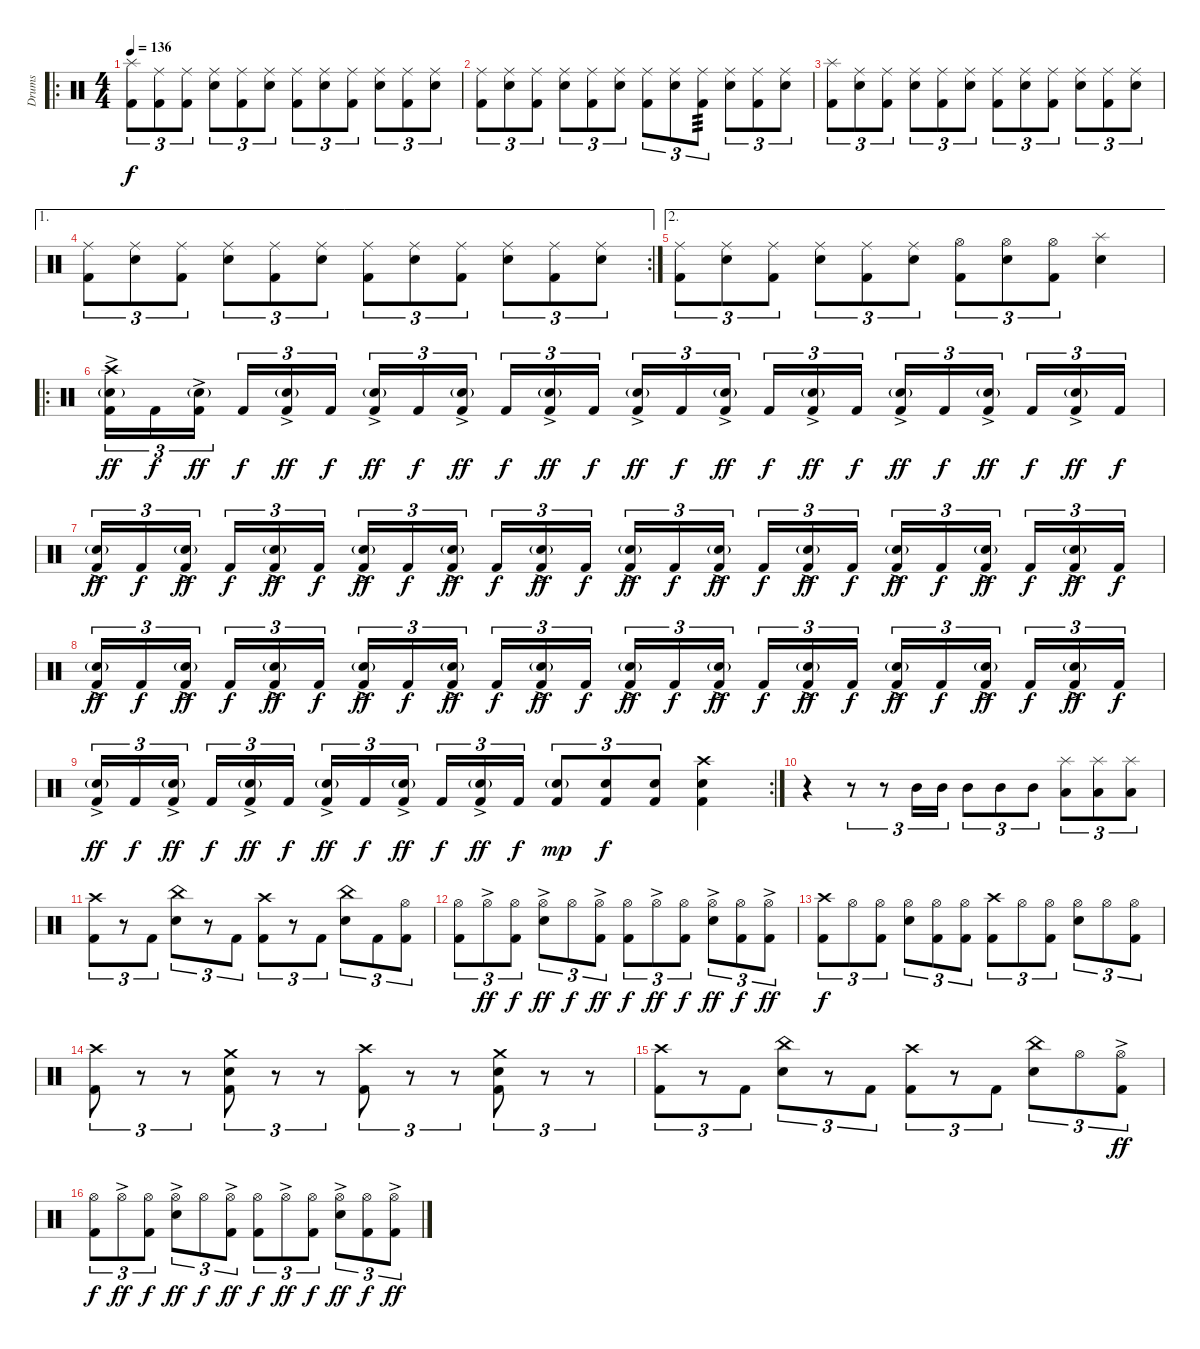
\track ("Drums" "Drums") {instrument percussion}
\staff {score}
\articulation defaults
\ro
\ts (4 4)
\tempo 136
\clef neutral
\ks c
("Splash (hit)" "Kick (hit) 2").8{tu (3 2) dy f} ("Ride (middle)" "Kick (hit) 2").8{tu (3 2)} ("Ride (middle)" "Kick (hit) 2").8{tu (3 2)} ("Ride (middle)" "Electric Snare (hit)").8{tu (3 2)} ("Ride (middle)" "Kick (hit) 2").8{tu (3 2)} ("Ride (middle)" "Electric Snare (hit)").8{tu (3 2)} ("Ride (middle)" "Kick (hit) 2").8{tu (3 2)} ("Ride (middle)" "Electric Snare (hit)").8{tu (3 2)} ("Ride (middle)" "Kick (hit) 2").8{tu (3 2)} ("Ride (middle)" "Electric Snare (hit)").8{tu (3 2)} ("Ride (middle)" "Kick (hit) 2").8{tu (3 2)} ("Ride (middle)" "Electric Snare (hit)").8{tu (3 2)} |
("Ride (middle)" "Kick (hit) 2").8{tu (3 2)} ("Ride (middle)" "Electric Snare (hit)").8{tu (3 2)} ("Ride (middle)" "Kick (hit) 2").8{tu (3 2)} ("Ride (middle)" "Electric Snare (hit)").8{tu (3 2)} ("Ride (middle)" "Kick (hit) 2").8{tu (3 2)} ("Ride (middle)" "Electric Snare (hit)").8{tu (3 2)} ("Ride (middle)" "Kick (hit) 2").8{tu (3 2)} ("Ride (middle)" "Electric Snare (hit)").8{tu (3 2)} ("Ride (middle)" "Kick (hit) 2").8{tu (3 2) tp 3} ("Ride (middle)" "Electric Snare (hit)").8{tu (3 2)} ("Ride (middle)" "Kick (hit) 2").8{tu (3 2)} ("Ride (middle)" "Electric Snare (hit)").8{tu (3 2)} |
("Splash (hit)" "Kick (hit) 2").8{tu (3 2)} ("Ride (middle)" "Electric Snare (hit)").8{tu (3 2)} ("Ride (middle)" "Kick (hit) 2").8{tu (3 2)} ("Ride (middle)" "Electric Snare (hit)").8{tu (3 2)} ("Ride (middle)" "Kick (hit) 2").8{tu (3 2)} ("Ride (middle)" "Electric Snare (hit)").8{tu (3 2)} ("Ride (middle)" "Kick (hit) 2").8{tu (3 2)} ("Ride (middle)" "Electric Snare (hit)").8{tu (3 2)} ("Ride (middle)" "Kick (hit) 2").8{tu (3 2)} ("Ride (middle)" "Electric Snare (hit)").8{tu (3 2)} ("Ride (middle)" "Kick (hit) 2").8{tu (3 2)} ("Ride (middle)" "Electric Snare (hit)").8{tu (3 2)} |
\ae 1
\rc 2
("Ride (middle)" "Kick (hit) 2").8{tu (3 2)} ("Ride (middle)" "Electric Snare (hit)").8{tu (3 2)} ("Ride (middle)" "Kick (hit) 2").8{tu (3 2)} ("Ride (middle)" "Electric Snare (hit)").8{tu (3 2)} ("Ride (middle)" "Kick (hit) 2").8{tu (3 2)} ("Ride (middle)" "Electric Snare (hit)").8{tu (3 2)} ("Ride (middle)" "Kick (hit) 2").8{tu (3 2)} ("Ride (middle)" "Electric Snare (hit)").8{tu (3 2)} ("Ride (middle)" "Kick (hit) 2").8{tu (3 2)} ("Ride (middle)" "Electric Snare (hit)").8{tu (3 2)} ("Ride (middle)" "Kick (hit) 2").8{tu (3 2)} ("Ride (middle)" "Electric Snare (hit)").8{tu (3 2)} |
\ae 2
("Ride (middle)" "Kick (hit) 2").8{tu (3 2)} ("Ride (middle)" "Electric Snare (hit)").8{tu (3 2)} ("Ride (middle)" "Kick (hit) 2").8{tu (3 2)} ("Ride (middle)" "Electric Snare (hit)").8{tu (3 2)} ("Ride (middle)" "Kick (hit) 2").8{tu (3 2)} ("Ride (middle)" "Electric Snare (hit)").8{tu (3 2)} ("Hi-Hat (open)" "Kick (hit) 2").8{tu (3 2)} ("Hi-Hat (open)" "Electric Snare (hit)").8{tu (3 2)} ("Hi-Hat (open)" "Kick (hit) 2").8{tu (3 2)} ("Splash (hit)" "Electric Snare (hit)").4 |
\ro
("Crash high (hit)" "Electric Snare (hit)"{g} "Kick (hit) 2"{ac}).16{tu (3 2) dy ff} "Kick (hit) 2".16{tu (3 2) dy f} ("Electric Snare (hit)"{g} "Kick (hit) 2"{ac}).16{tu (3 2) dy ff beam splitsecondary} "Kick (hit) 2".16{tu (3 2) dy f} ("Electric Snare (hit)"{g} "Kick (hit) 2"{ac}).16{tu (3 2) dy ff} "Kick (hit) 2".16{tu (3 2) dy f} ("Electric Snare (hit)"{g} "Kick (hit) 2"{ac}).16{tu (3 2) dy ff} "Kick (hit) 2".16{tu (3 2) dy f} ("Electric Snare (hit)"{g} "Kick (hit) 2"{ac}).16{tu (3 2) dy ff beam splitsecondary} "Kick (hit) 2".16{tu (3 2) dy f} ("Electric Snare (hit)"{g} "Kick (hit) 2"{ac}).16{tu (3 2) dy ff} "Kick (hit) 2".16{tu (3 2) dy f} ("Electric Snare (hit)"{g} "Kick (hit) 2"{ac}).16{tu (3 2) dy ff} "Kick (hit) 2".16{tu (3 2) dy f} ("Electric Snare (hit)"{g} "Kick (hit) 2"{ac}).16{tu (3 2) dy ff beam splitsecondary} "Kick (hit) 2".16{tu (3 2) dy f} ("Electric Snare (hit)"{g} "Kick (hit) 2"{ac}).16{tu (3 2) dy ff} "Kick (hit) 2".16{tu (3 2) dy f} ("Electric Snare (hit)"{g} "Kick (hit) 2"{ac}).16{tu (3 2) dy ff} "Kick (hit) 2".16{tu (3 2) dy f} ("Electric Snare (hit)"{g} "Kick (hit) 2"{ac}).16{tu (3 2) dy ff beam splitsecondary} "Kick (hit) 2".16{tu (3 2) dy f} ("Electric Snare (hit)"{g} "Kick (hit) 2"{ac}).16{tu (3 2) dy ff} "Kick (hit) 2".16{tu (3 2) dy f} |
("Electric Snare (hit)"{g} "Kick (hit) 2"{ac}).16{tu (3 2) dy ff} "Kick (hit) 2".16{tu (3 2) dy f} ("Electric Snare (hit)"{g} "Kick (hit) 2"{ac}).16{tu (3 2) dy ff beam splitsecondary} "Kick (hit) 2".16{tu (3 2) dy f} ("Electric Snare (hit)"{g} "Kick (hit) 2"{ac}).16{tu (3 2) dy ff} "Kick (hit) 2".16{tu (3 2) dy f} ("Electric Snare (hit)"{g} "Kick (hit) 2"{ac}).16{tu (3 2) dy ff} "Kick (hit) 2".16{tu (3 2) dy f} ("Electric Snare (hit)"{g} "Kick (hit) 2"{ac}).16{tu (3 2) dy ff beam splitsecondary} "Kick (hit) 2".16{tu (3 2) dy f} ("Electric Snare (hit)"{g} "Kick (hit) 2"{ac}).16{tu (3 2) dy ff} "Kick (hit) 2".16{tu (3 2) dy f} ("Electric Snare (hit)"{g} "Kick (hit) 2"{ac}).16{tu (3 2) dy ff} "Kick (hit) 2".16{tu (3 2) dy f} ("Electric Snare (hit)"{g} "Kick (hit) 2"{ac}).16{tu (3 2) dy ff beam splitsecondary} "Kick (hit) 2".16{tu (3 2) dy f} ("Electric Snare (hit)"{g} "Kick (hit) 2"{ac}).16{tu (3 2) dy ff} "Kick (hit) 2".16{tu (3 2) dy f} ("Electric Snare (hit)"{g} "Kick (hit) 2"{ac}).16{tu (3 2) dy ff} "Kick (hit) 2".16{tu (3 2) dy f} ("Electric Snare (hit)"{g} "Kick (hit) 2"{ac}).16{tu (3 2) dy ff beam splitsecondary} "Kick (hit) 2".16{tu (3 2) dy f} ("Electric Snare (hit)"{g} "Kick (hit) 2"{ac}).16{tu (3 2) dy ff} "Kick (hit) 2".16{tu (3 2) dy f} |
("Electric Snare (hit)"{g} "Kick (hit) 2"{ac}).16{tu (3 2) dy ff} "Kick (hit) 2".16{tu (3 2) dy f} ("Electric Snare (hit)"{g} "Kick (hit) 2"{ac}).16{tu (3 2) dy ff beam splitsecondary} "Kick (hit) 2".16{tu (3 2) dy f} ("Electric Snare (hit)"{g} "Kick (hit) 2"{ac}).16{tu (3 2) dy ff} "Kick (hit) 2".16{tu (3 2) dy f} ("Electric Snare (hit)"{g} "Kick (hit) 2"{ac}).16{tu (3 2) dy ff} "Kick (hit) 2".16{tu (3 2) dy f} ("Electric Snare (hit)"{g} "Kick (hit) 2"{ac}).16{tu (3 2) dy ff beam splitsecondary} "Kick (hit) 2".16{tu (3 2) dy f} ("Electric Snare (hit)"{g} "Kick (hit) 2"{ac}).16{tu (3 2) dy ff} "Kick (hit) 2".16{tu (3 2) dy f} ("Electric Snare (hit)"{g} "Kick (hit) 2"{ac}).16{tu (3 2) dy ff} "Kick (hit) 2".16{tu (3 2) dy f} ("Electric Snare (hit)"{g} "Kick (hit) 2"{ac}).16{tu (3 2) dy ff beam splitsecondary} "Kick (hit) 2".16{tu (3 2) dy f} ("Electric Snare (hit)"{g} "Kick (hit) 2"{ac}).16{tu (3 2) dy ff} "Kick (hit) 2".16{tu (3 2) dy f} ("Electric Snare (hit)"{g} "Kick (hit) 2"{ac}).16{tu (3 2) dy ff} "Kick (hit) 2".16{tu (3 2) dy f} ("Electric Snare (hit)"{g} "Kick (hit) 2"{ac}).16{tu (3 2) dy ff beam splitsecondary} "Kick (hit) 2".16{tu (3 2) dy f} ("Electric Snare (hit)"{g} "Kick (hit) 2"{ac}).16{tu (3 2) dy ff} "Kick (hit) 2".16{tu (3 2) dy f} |
\rc 2
("Electric Snare (hit)"{g} "Kick (hit) 2"{ac}).16{tu (3 2) dy ff} "Kick (hit) 2".16{tu (3 2) dy f} ("Electric Snare (hit)"{g} "Kick (hit) 2"{ac}).16{tu (3 2) dy ff beam splitsecondary} "Kick (hit) 2".16{tu (3 2) dy f} ("Electric Snare (hit)"{g} "Kick (hit) 2"{ac}).16{tu (3 2) dy ff} "Kick (hit) 2".16{tu (3 2) dy f} ("Electric Snare (hit)"{g} "Kick (hit) 2"{ac}).16{tu (3 2) dy ff} "Kick (hit) 2".16{tu (3 2) dy f} ("Electric Snare (hit)"{g} "Kick (hit) 2"{ac}).16{tu (3 2) dy ff beam splitsecondary} "Kick (hit) 2".16{tu (3 2) dy f} ("Electric Snare (hit)"{g} "Kick (hit) 2"{ac}).16{tu (3 2) dy ff} "Kick (hit) 2".16{tu (3 2) dy f} ("Electric Snare (hit)"{g} "Kick (hit) 2").8{tu (3 2) dy mp} ("Electric Snare (hit)" "Kick (hit) 2").8{tu (3 2) dy f} ("Electric Snare (hit)" "Kick (hit) 2").8{tu (3 2)} ("Crash high (hit)" "Electric Snare (hit)" "Kick (hit) 2").4 |
r.4 r.8{tu (3 2)} r.8{tu (3 2)} "Mid Tom (hit)".16{tu (3 2)} "Mid Tom (hit)".16{tu (3 2)} "Mid Tom (hit)".8{tu (3 2)} "Mid Tom (hit)".8{tu (3 2)} "Mid Tom (hit)".8{tu (3 2)} ("Splash (hit)" "Low Tom (hit)").8{tu (3 2) volume 3} ("Splash (hit)" "Low Tom (hit)").8{tu (3 2) volume 8} ("Splash (hit)" "Low Tom (hit)").8{tu (3 2) volume 13} |
("Crash high (hit)" "Kick (hit) 2").8{tu (3 2)} r.8{tu (3 2)} "Kick (hit) 2".8{tu (3 2)} ("China (hit)" "Electric Snare (hit)").8{tu (3 2)} r.8{tu (3 2)} "Kick (hit) 2".8{tu (3 2)} ("Crash high (hit)" "Kick (hit) 2").8{tu (3 2)} r.8{tu (3 2)} "Kick (hit) 2".8{tu (3 2)} ("China (hit)" "Electric Snare (hit)").8{tu (3 2)} "Kick (hit) 2".8{tu (3 2)} ("Hi-Hat (open)" "Kick (hit) 2").8{tu (3 2)} |
("Hi-Hat (open)" "Kick (hit) 2").8{tu (3 2)} "Hi-Hat (open)"{ac}.8{tu (3 2) dy ff} ("Hi-Hat (open)" "Kick (hit) 2").8{tu (3 2) dy f} ("Hi-Hat (open)"{ac} "Electric Snare (hit)").8{tu (3 2) dy ff} "Hi-Hat (open)".8{tu (3 2) dy f} ("Hi-Hat (open)"{ac} "Kick (hit) 2").8{tu (3 2) dy ff} ("Hi-Hat (open)" "Kick (hit) 2").8{tu (3 2) dy f} "Hi-Hat (open)"{ac}.8{tu (3 2) dy ff} ("Hi-Hat (open)" "Kick (hit) 2").8{tu (3 2) dy f} ("Hi-Hat (open)"{ac} "Electric Snare (hit)").8{tu (3 2) dy ff} ("Hi-Hat (open)" "Kick (hit) 2").8{tu (3 2) dy f} ("Hi-Hat (open)"{ac} "Kick (hit) 2").8{tu (3 2) dy ff} |
("Crash high (hit)" "Kick (hit) 2").8{tu (3 2) dy f} "Hi-Hat (open)".8{tu (3 2)} ("Hi-Hat (open)" "Kick (hit) 2").8{tu (3 2)} ("Hi-Hat (open)" "Electric Snare (hit)").8{tu (3 2)} ("Hi-Hat (open)" "Kick (hit) 2").8{tu (3 2)} ("Hi-Hat (open)" "Kick (hit) 2").8{tu (3 2)} ("Crash high (hit)" "Kick (hit) 2").8{tu (3 2)} "Hi-Hat (open)".8{tu (3 2)} ("Hi-Hat (open)" "Kick (hit) 2").8{tu (3 2)} ("Hi-Hat (open)" "Electric Snare (hit)").8{tu (3 2)} "Hi-Hat (open)".8{tu (3 2)} ("Hi-Hat (open)" "Kick (hit) 2").8{tu (3 2)} |
("Crash high (hit)" "Kick (hit) 2").8{tu (3 2)} r.8{tu (3 2)} r.8{tu (3 2)} ("Crash medium (hit)" "Electric Snare (hit)" "Kick (hit) 2").8{tu (3 2)} r.8{tu (3 2)} r.8{tu (3 2)} ("Crash high (hit)" "Kick (hit) 2").8{tu (3 2)} r.8{tu (3 2)} r.8{tu (3 2)} ("Crash medium (hit)" "Electric Snare (hit)" "Kick (hit) 2").8{tu (3 2)} r.8{tu (3 2)} r.8{tu (3 2)} |
("Crash high (hit)" "Kick (hit) 2").8{tu (3 2)} r.8{tu (3 2)} "Kick (hit) 2".8{tu (3 2)} ("China (hit)" "Electric Snare (hit)").8{tu (3 2)} r.8{tu (3 2)} "Kick (hit) 2".8{tu (3 2)} ("Crash high (hit)" "Kick (hit) 2").8{tu (3 2)} r.8{tu (3 2)} "Kick (hit) 2".8{tu (3 2)} ("China (hit)" "Electric Snare (hit)").8{tu (3 2)} "Hi-Hat (open)".8{tu (3 2)} ("Hi-Hat (open)"{ac} "Kick (hit) 2").8{tu (3 2) dy ff} |
("Hi-Hat (open)" "Kick (hit) 2").8{tu (3 2) dy f} "Hi-Hat (open)"{ac}.8{tu (3 2) dy ff} ("Hi-Hat (open)" "Kick (hit) 2").8{tu (3 2) dy f} ("Hi-Hat (open)"{ac} "Electric Snare (hit)").8{tu (3 2) dy ff} "Hi-Hat (open)".8{tu (3 2) dy f} ("Hi-Hat (open)"{ac} "Kick (hit) 2").8{tu (3 2) dy ff} ("Hi-Hat (open)" "Kick (hit) 2").8{tu (3 2) dy f} "Hi-Hat (open)"{ac}.8{tu (3 2) dy ff} ("Hi-Hat (open)" "Kick (hit) 2").8{tu (3 2) dy f} ("Hi-Hat (open)"{ac} "Electric Snare (hit)").8{tu (3 2) dy ff} ("Hi-Hat (open)" "Kick (hit) 2").8{tu (3 2) dy f} ("Hi-Hat (open)"{ac} "Kick (hit) 2").8{tu (3 2) dy ff}
